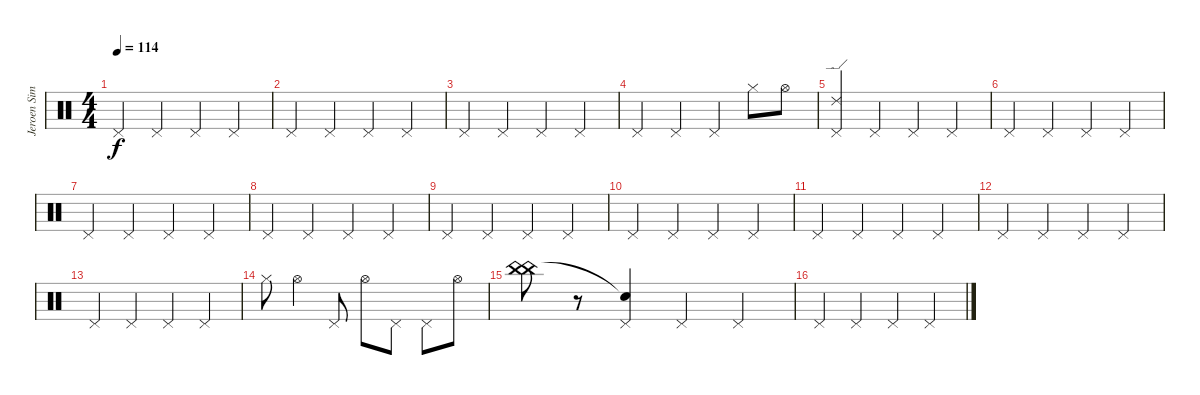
\track ("Jeroen Simons" "Jeroen Sim") {instrument percussion}
\staff {score}
\articulation defaults
\ts (4 4)
\tempo 114
\clef neutral
\ks c "Pedal Hi-Hat (hit)".4{dy f} "Pedal Hi-Hat (hit)".4 "Pedal Hi-Hat (hit)".4 "Pedal Hi-Hat (hit)".4
|
"Pedal Hi-Hat (hit)".4 "Pedal Hi-Hat (hit)".4 "Pedal Hi-Hat (hit)".4 "Pedal Hi-Hat (hit)".4 |
"Pedal Hi-Hat (hit)".4 "Pedal Hi-Hat (hit)".4 "Pedal Hi-Hat (hit)".4 "Pedal Hi-Hat (hit)".4 |
"Pedal Hi-Hat (hit)".4 "Pedal Hi-Hat (hit)".4 "Pedal Hi-Hat (hit)".4 "Hi-Hat (closed)".8 "Hi-Hat (open)".8 |
("Ride (edge) 2" "Pedal Hi-Hat (hit)").4 "Pedal Hi-Hat (hit)".4 "Pedal Hi-Hat (hit)".4 "Pedal Hi-Hat (hit)".4 |
"Pedal Hi-Hat (hit)".4 "Pedal Hi-Hat (hit)".4 "Pedal Hi-Hat (hit)".4 "Pedal Hi-Hat (hit)".4 |
"Pedal Hi-Hat (hit)".4 "Pedal Hi-Hat (hit)".4 "Pedal Hi-Hat (hit)".4 "Pedal Hi-Hat (hit)".4 |
"Pedal Hi-Hat (hit)".4 "Pedal Hi-Hat (hit)".4 "Pedal Hi-Hat (hit)".4 "Pedal Hi-Hat (hit)".4 |
"Pedal Hi-Hat (hit)".4 "Pedal Hi-Hat (hit)".4 "Pedal Hi-Hat (hit)".4 "Pedal Hi-Hat (hit)".4 |
"Pedal Hi-Hat (hit)".4 "Pedal Hi-Hat (hit)".4 "Pedal Hi-Hat (hit)".4 "Pedal Hi-Hat (hit)".4 |
"Pedal Hi-Hat (hit)".4 "Pedal Hi-Hat (hit)".4 "Pedal Hi-Hat (hit)".4 "Pedal Hi-Hat (hit)".4 |
"Pedal Hi-Hat (hit)".4 "Pedal Hi-Hat (hit)".4 "Pedal Hi-Hat (hit)".4 "Pedal Hi-Hat (hit)".4 |
"Pedal Hi-Hat (hit)".4 "Pedal Hi-Hat (hit)".4 "Pedal Hi-Hat (hit)".4 "Pedal Hi-Hat (hit)".4 |
"Hi-Hat (closed)".8 "Hi-Hat (open)".4 "Pedal Hi-Hat (hit)".8 "Hi-Hat (open)".8 "Pedal Hi-Hat (hit)".8 "Pedal Hi-Hat (hit)".8 "Hi-Hat (open)".8 |
("China (hit)" "China (hit)").8 r.8 ("Snare (hit)"{t} "Pedal Hi-Hat (hit)").4 "Pedal Hi-Hat (hit)".4 "Pedal Hi-Hat (hit)".4 |
"Pedal Hi-Hat (hit)".4 "Pedal Hi-Hat (hit)".4 "Pedal Hi-Hat (hit)".4 "Pedal Hi-Hat (hit)".4
